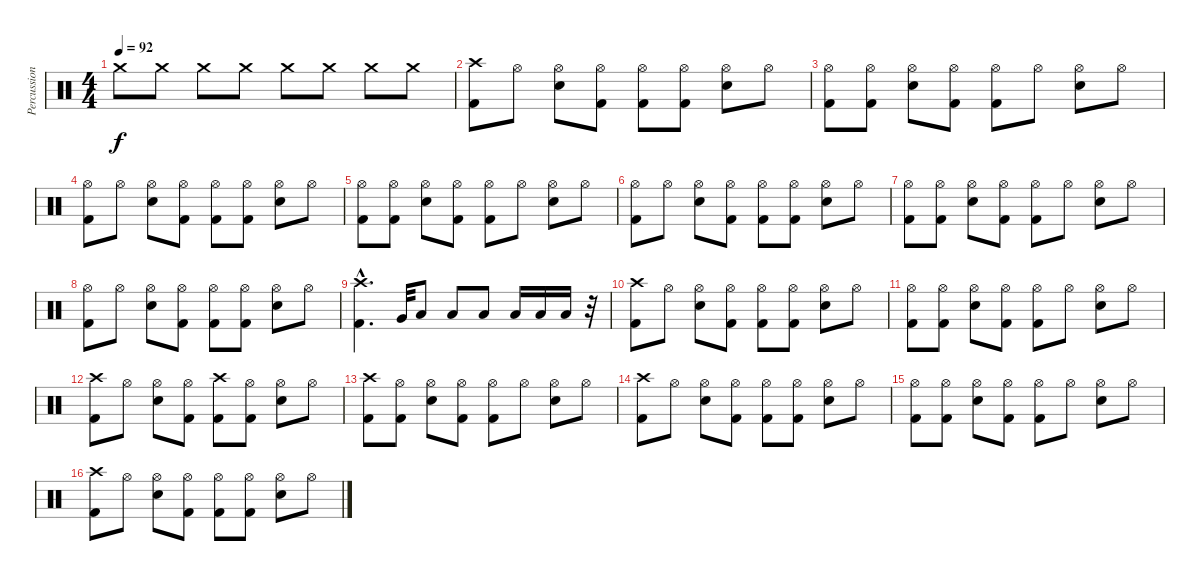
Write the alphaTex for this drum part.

\track ("Percussion" "Percussion") {instrument percussion}
\staff {score}
\articulation defaults
\ts (4 4)
\tempo 92
\clef neutral
\ks c "Crash medium (hit)".8{dy f} "Crash medium (hit)".8 "Crash medium (hit)".8 "Crash medium (hit)".8 "Crash medium (hit)".8 "Crash medium (hit)".8 "Crash medium (hit)".8 "Crash medium (hit)".8
|
("Crash high (hit)" "Kick (hit) 2").8 "Hi-Hat (open)".8 ("Hi-Hat (open)" "Electric Snare (hit)").8 ("Hi-Hat (open)" "Kick (hit) 2").8 ("Hi-Hat (open)" "Kick (hit) 2").8 ("Hi-Hat (open)" "Kick (hit) 2").8 ("Hi-Hat (open)" "Electric Snare (hit)").8 "Hi-Hat (open)".8 |
("Hi-Hat (open)" "Kick (hit) 2").8 ("Hi-Hat (open)" "Kick (hit) 2").8 ("Hi-Hat (open)" "Electric Snare (hit)").8 ("Hi-Hat (open)" "Kick (hit) 2").8 ("Hi-Hat (open)" "Kick (hit) 2").8 "Hi-Hat (open)".8 ("Hi-Hat (open)" "Electric Snare (hit)").8 "Hi-Hat (open)".8 |
("Hi-Hat (open)" "Kick (hit) 2").8 "Hi-Hat (open)".8 ("Hi-Hat (open)" "Electric Snare (hit)").8 ("Hi-Hat (open)" "Kick (hit) 2").8 ("Hi-Hat (open)" "Kick (hit) 2").8 ("Hi-Hat (open)" "Kick (hit) 2").8 ("Hi-Hat (open)" "Electric Snare (hit)").8 "Hi-Hat (open)".8 |
("Hi-Hat (open)" "Kick (hit) 2").8 ("Hi-Hat (open)" "Kick (hit) 2").8 ("Hi-Hat (open)" "Electric Snare (hit)").8 ("Hi-Hat (open)" "Kick (hit) 2").8 ("Hi-Hat (open)" "Kick (hit) 2").8 "Hi-Hat (open)".8 ("Hi-Hat (open)" "Electric Snare (hit)").8 "Hi-Hat (open)".8 |
("Hi-Hat (open)" "Kick (hit) 2").8 "Hi-Hat (open)".8 ("Hi-Hat (open)" "Electric Snare (hit)").8 ("Hi-Hat (open)" "Kick (hit) 2").8 ("Hi-Hat (open)" "Kick (hit) 2").8 ("Hi-Hat (open)" "Kick (hit) 2").8 ("Hi-Hat (open)" "Electric Snare (hit)").8 "Hi-Hat (open)".8 |
("Hi-Hat (open)" "Kick (hit) 2").8 ("Hi-Hat (open)" "Kick (hit) 2").8 ("Hi-Hat (open)" "Electric Snare (hit)").8 ("Hi-Hat (open)" "Kick (hit) 2").8 ("Hi-Hat (open)" "Kick (hit) 2").8 "Hi-Hat (open)".8 ("Hi-Hat (open)" "Electric Snare (hit)").8 "Hi-Hat (open)".8 |
("Hi-Hat (open)" "Kick (hit) 2").8 "Hi-Hat (open)".8 ("Hi-Hat (open)" "Electric Snare (hit)").8 ("Hi-Hat (open)" "Kick (hit) 2").8 ("Hi-Hat (open)" "Kick (hit) 2").8 ("Hi-Hat (open)" "Kick (hit) 2").8 ("Hi-Hat (open)" "Electric Snare (hit)").8 "Hi-Hat (open)".8 |
("Crash high (hit)"{hac} "Kick (hit) 2"{hac}).4{d} "Very Low Tom (hit)".32 "Low Tom (hit)".8 "Low Tom (hit)".8 "Low Tom (hit)".8 "Low Floor Tom (hit)".16 "Low Floor Tom (hit)".16 "Low Floor Tom (hit)".16 r.32 |
("Crash high (hit)" "Kick (hit) 2").8 "Hi-Hat (open)".8 ("Hi-Hat (open)" "Electric Snare (hit)").8 ("Hi-Hat (open)" "Kick (hit) 2").8 ("Hi-Hat (open)" "Kick (hit) 2").8 ("Hi-Hat (open)" "Kick (hit) 2").8 ("Hi-Hat (open)" "Electric Snare (hit)").8 "Hi-Hat (open)".8 |
("Hi-Hat (open)" "Kick (hit) 2").8 ("Hi-Hat (open)" "Kick (hit) 2").8 ("Hi-Hat (open)" "Electric Snare (hit)").8 ("Hi-Hat (open)" "Kick (hit) 2").8 ("Hi-Hat (open)" "Kick (hit) 2").8 "Hi-Hat (open)".8 ("Hi-Hat (open)" "Electric Snare (hit)").8 "Hi-Hat (open)".8 |
("Crash high (hit)" "Kick (hit) 2").8 "Hi-Hat (open)".8 ("Hi-Hat (open)" "Electric Snare (hit)").8 ("Hi-Hat (open)" "Kick (hit) 2").8 ("Crash high (hit)" "Kick (hit) 2").8 ("Hi-Hat (open)" "Kick (hit) 2").8 ("Hi-Hat (open)" "Electric Snare (hit)").8 "Hi-Hat (open)".8 |
("Crash high (hit)" "Kick (hit) 2").8 ("Hi-Hat (open)" "Kick (hit) 2").8 ("Hi-Hat (open)" "Electric Snare (hit)").8 ("Hi-Hat (open)" "Kick (hit) 2").8 ("Hi-Hat (open)" "Kick (hit) 2").8 "Hi-Hat (open)".8 ("Hi-Hat (open)" "Electric Snare (hit)").8 "Hi-Hat (open)".8 |
("Crash high (hit)" "Kick (hit) 2").8 "Hi-Hat (open)".8 ("Hi-Hat (open)" "Electric Snare (hit)").8 ("Hi-Hat (open)" "Kick (hit) 2").8 ("Hi-Hat (open)" "Kick (hit) 2").8 ("Hi-Hat (open)" "Kick (hit) 2").8 ("Hi-Hat (open)" "Electric Snare (hit)").8 "Hi-Hat (open)".8 |
("Hi-Hat (open)" "Kick (hit) 2").8 ("Hi-Hat (open)" "Kick (hit) 2").8 ("Hi-Hat (open)" "Electric Snare (hit)").8 ("Hi-Hat (open)" "Kick (hit) 2").8 ("Hi-Hat (open)" "Kick (hit) 2").8 "Hi-Hat (open)".8 ("Hi-Hat (open)" "Electric Snare (hit)").8 "Hi-Hat (open)".8 |
("Crash high (hit)" "Kick (hit) 2").8 "Hi-Hat (open)".8 ("Hi-Hat (open)" "Electric Snare (hit)").8 ("Hi-Hat (open)" "Kick (hit) 2").8 ("Hi-Hat (open)" "Kick (hit) 2").8 ("Hi-Hat (open)" "Kick (hit) 2").8 ("Hi-Hat (open)" "Electric Snare (hit)").8 "Hi-Hat (open)".8
